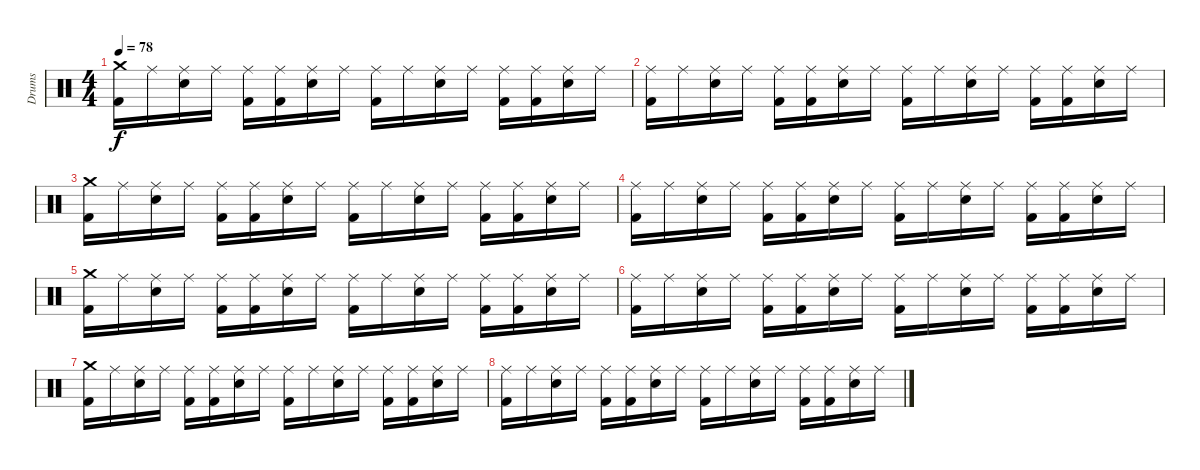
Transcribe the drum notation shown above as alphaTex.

\track ("Drums" "Drums") {instrument percussion}
\staff {score}
\articulation defaults
\ts (4 4)
\tempo 78
\clef neutral
\ks c
("Crash medium (hit)" "Kick (hit) 2").16{dy f} "Ride (middle)".16 ("Ride (middle)" "Snare (hit) 2").16 "Ride (middle)".16 ("Ride (middle)" "Kick (hit) 2").16 ("Ride (middle)" "Kick (hit) 2").16 ("Ride (middle)" "Snare (hit) 2").16 "Ride (middle)".16 ("Ride (middle)" "Kick (hit) 2").16 "Ride (middle)".16 ("Ride (middle)" "Snare (hit) 2").16 "Ride (middle)".16 ("Ride (middle)" "Kick (hit) 2").16 ("Ride (middle)" "Kick (hit) 2").16 ("Ride (middle)" "Snare (hit) 2").16 "Ride (middle)".16 |
("Ride (middle)" "Kick (hit) 2").16 "Ride (middle)".16 ("Ride (middle)" "Snare (hit) 2").16 "Ride (middle)".16 ("Ride (middle)" "Kick (hit) 2").16 ("Ride (middle)" "Kick (hit) 2").16 ("Ride (middle)" "Snare (hit) 2").16 "Ride (middle)".16 ("Ride (middle)" "Kick (hit) 2").16 "Ride (middle)".16 ("Ride (middle)" "Snare (hit) 2").16 "Ride (middle)".16 ("Ride (middle)" "Kick (hit) 2").16 ("Ride (middle)" "Kick (hit) 2").16 ("Ride (middle)" "Snare (hit) 2").16 "Ride (middle)".16 |
("Crash medium (hit)" "Kick (hit) 2").16 "Ride (middle)".16 ("Ride (middle)" "Snare (hit) 2").16 "Ride (middle)".16 ("Ride (middle)" "Kick (hit) 2").16 ("Ride (middle)" "Kick (hit) 2").16 ("Ride (middle)" "Snare (hit) 2").16 "Ride (middle)".16 ("Ride (middle)" "Kick (hit) 2").16 "Ride (middle)".16 ("Ride (middle)" "Snare (hit) 2").16 "Ride (middle)".16 ("Ride (middle)" "Kick (hit) 2").16 ("Ride (middle)" "Kick (hit) 2").16 ("Ride (middle)" "Snare (hit) 2").16 "Ride (middle)".16 |
("Ride (middle)" "Kick (hit) 2").16 "Ride (middle)".16 ("Ride (middle)" "Snare (hit) 2").16 "Ride (middle)".16 ("Ride (middle)" "Kick (hit) 2").16 ("Ride (middle)" "Kick (hit) 2").16 ("Ride (middle)" "Snare (hit) 2").16 "Ride (middle)".16 ("Ride (middle)" "Kick (hit) 2").16 "Ride (middle)".16 ("Ride (middle)" "Snare (hit) 2").16 "Ride (middle)".16 ("Ride (middle)" "Kick (hit) 2").16 ("Ride (middle)" "Kick (hit) 2").16 ("Ride (middle)" "Snare (hit) 2").16 "Ride (middle)".16 |
("Crash medium (hit)" "Kick (hit) 2").16 "Ride (middle)".16 ("Ride (middle)" "Snare (hit) 2").16 "Ride (middle)".16 ("Ride (middle)" "Kick (hit) 2").16 ("Ride (middle)" "Kick (hit) 2").16 ("Ride (middle)" "Snare (hit) 2").16 "Ride (middle)".16 ("Ride (middle)" "Kick (hit) 2").16 "Ride (middle)".16 ("Ride (middle)" "Snare (hit) 2").16 "Ride (middle)".16 ("Ride (middle)" "Kick (hit) 2").16 ("Ride (middle)" "Kick (hit) 2").16 ("Ride (middle)" "Snare (hit) 2").16 "Ride (middle)".16 |
("Ride (middle)" "Kick (hit) 2").16 "Ride (middle)".16 ("Ride (middle)" "Snare (hit) 2").16 "Ride (middle)".16 ("Ride (middle)" "Kick (hit) 2").16 ("Ride (middle)" "Kick (hit) 2").16 ("Ride (middle)" "Snare (hit) 2").16 "Ride (middle)".16 ("Ride (middle)" "Kick (hit) 2").16 "Ride (middle)".16 ("Ride (middle)" "Snare (hit) 2").16 "Ride (middle)".16 ("Ride (middle)" "Kick (hit) 2").16 ("Ride (middle)" "Kick (hit) 2").16 ("Ride (middle)" "Snare (hit) 2").16 "Ride (middle)".16 |
("Crash medium (hit)" "Kick (hit) 2").16 "Ride (middle)".16 ("Ride (middle)" "Snare (hit) 2").16 "Ride (middle)".16 ("Ride (middle)" "Kick (hit) 2").16 ("Ride (middle)" "Kick (hit) 2").16 ("Ride (middle)" "Snare (hit) 2").16 "Ride (middle)".16 ("Ride (middle)" "Kick (hit) 2").16 "Ride (middle)".16 ("Ride (middle)" "Snare (hit) 2").16 "Ride (middle)".16 ("Ride (middle)" "Kick (hit) 2").16 ("Ride (middle)" "Kick (hit) 2").16 ("Ride (middle)" "Snare (hit) 2").16 "Ride (middle)".16 |
("Ride (middle)" "Kick (hit) 2").16 "Ride (middle)".16 ("Ride (middle)" "Snare (hit) 2").16 "Ride (middle)".16 ("Ride (middle)" "Kick (hit) 2").16 ("Ride (middle)" "Kick (hit) 2").16 ("Ride (middle)" "Snare (hit) 2").16 "Ride (middle)".16 ("Ride (middle)" "Kick (hit) 2").16 "Ride (middle)".16 ("Ride (middle)" "Snare (hit) 2").16 "Ride (middle)".16 ("Ride (middle)" "Kick (hit) 2").16 ("Ride (middle)" "Kick (hit) 2").16 ("Ride (middle)" "Snare (hit) 2").16 "Ride (middle)".16
